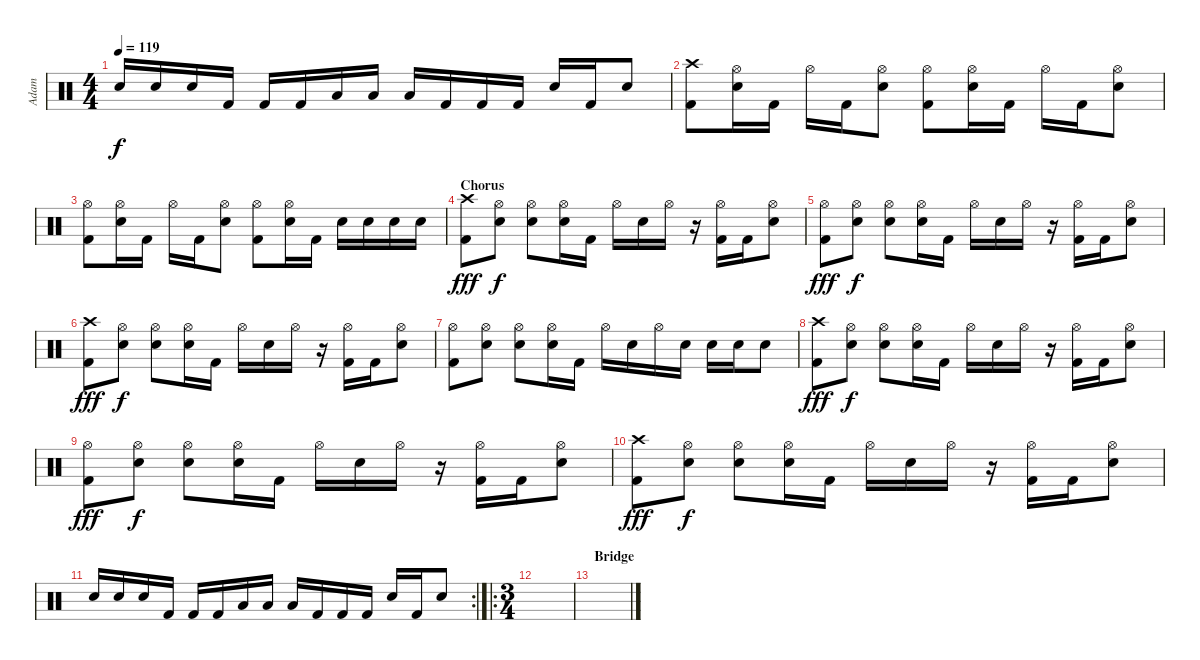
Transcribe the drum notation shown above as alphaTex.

\track ("Adam" "Adam") {instrument percussion}
\staff {score}
\articulation defaults
\ts (4 4)
\tempo 119
\clef neutral
\ks c "Electric Snare (hit)".16{dy f} "Electric Snare (hit)".16 "Electric Snare (hit)".16 "Kick (hit) 2".16 "Kick (hit) 2".16 "Kick (hit) 2".16 "Low Tom (hit)".16 "Low Tom (hit)".16 "Low Tom (hit)".16 "Kick (hit) 2".16 "Kick (hit) 2".16 "Kick (hit) 2".16 "Electric Snare (hit)".16 "Kick (hit) 2".16 "Electric Snare (hit)".8
|
("Crash high (hit)" "Kick (hit) 2").8 ("Hi-Hat (open)" "Electric Snare (hit)").16 "Kick (hit) 2".16 "Hi-Hat (open)".16 "Kick (hit) 2".16 ("Hi-Hat (open)" "Electric Snare (hit)").8 ("Hi-Hat (open)" "Kick (hit) 2").8 ("Hi-Hat (open)" "Electric Snare (hit)").16 "Kick (hit) 2".16 "Hi-Hat (open)".16 "Kick (hit) 2".16 ("Hi-Hat (open)" "Electric Snare (hit)").8 |
("Hi-Hat (open)" "Kick (hit) 2").8 ("Hi-Hat (open)" "Electric Snare (hit)").16 "Kick (hit) 2".16 "Hi-Hat (open)".16 "Kick (hit) 2".16 ("Hi-Hat (open)" "Electric Snare (hit)").8 ("Hi-Hat (open)" "Kick (hit) 2").8 ("Hi-Hat (open)" "Electric Snare (hit)").16 "Kick (hit) 2".16 "Electric Snare (hit)".16 "Electric Snare (hit)".16 "Electric Snare (hit)".16 "Electric Snare (hit)".16 |
\section ("" "Chorus")
("Crash high (hit)" "Kick (hit) 2").8{dy fff} ("Hi-Hat (open)" "Electric Snare (hit)").8{dy f} ("Hi-Hat (open)" "Electric Snare (hit)").8 ("Hi-Hat (open)" "Electric Snare (hit)").16 "Kick (hit) 2".16 "Hi-Hat (open)".16 "Electric Snare (hit)".16 "Hi-Hat (open)".16 r.16 ("Hi-Hat (open)" "Kick (hit) 2").16 "Kick (hit) 2".16 ("Hi-Hat (open)" "Electric Snare (hit)").8 |
("Hi-Hat (open)" "Kick (hit) 2").8{dy fff} ("Hi-Hat (open)" "Electric Snare (hit)").8{dy f} ("Hi-Hat (open)" "Electric Snare (hit)").8 ("Hi-Hat (open)" "Electric Snare (hit)").16 "Kick (hit) 2".16 "Hi-Hat (open)".16 "Electric Snare (hit)".16 "Hi-Hat (open)".16 r.16 ("Hi-Hat (open)" "Kick (hit) 2").16 "Kick (hit) 2".16 ("Hi-Hat (open)" "Electric Snare (hit)").8 |
("Crash high (hit)" "Kick (hit) 2").8{dy fff} ("Hi-Hat (open)" "Electric Snare (hit)").8{dy f} ("Hi-Hat (open)" "Electric Snare (hit)").8 ("Hi-Hat (open)" "Electric Snare (hit)").16 "Kick (hit) 2".16 "Hi-Hat (open)".16 "Electric Snare (hit)".16 "Hi-Hat (open)".16 r.16 ("Hi-Hat (open)" "Kick (hit) 2").16 "Kick (hit) 2".16 ("Hi-Hat (open)" "Electric Snare (hit)").8 |
("Hi-Hat (open)" "Kick (hit) 2").8 ("Hi-Hat (open)" "Electric Snare (hit)").8 ("Hi-Hat (open)" "Electric Snare (hit)").8 ("Hi-Hat (open)" "Electric Snare (hit)").16 "Kick (hit) 2".16 "Hi-Hat (open)".16 "Electric Snare (hit)".16 "Hi-Hat (open)".16 "Electric Snare (hit)".16 "Electric Snare (hit)".16 "Electric Snare (hit)".16 "Electric Snare (hit)".8 |
("Crash high (hit)" "Kick (hit) 2").8{dy fff} ("Hi-Hat (open)" "Electric Snare (hit)").8{dy f} ("Hi-Hat (open)" "Electric Snare (hit)").8 ("Hi-Hat (open)" "Electric Snare (hit)").16 "Kick (hit) 2".16 "Hi-Hat (open)".16 "Electric Snare (hit)".16 "Hi-Hat (open)".16 r.16 ("Hi-Hat (open)" "Kick (hit) 2").16 "Kick (hit) 2".16 ("Hi-Hat (open)" "Electric Snare (hit)").8 |
("Hi-Hat (open)" "Kick (hit) 2").8{dy fff} ("Hi-Hat (open)" "Electric Snare (hit)").8{dy f} ("Hi-Hat (open)" "Electric Snare (hit)").8 ("Hi-Hat (open)" "Electric Snare (hit)").16 "Kick (hit) 2".16 "Hi-Hat (open)".16 "Electric Snare (hit)".16 "Hi-Hat (open)".16 r.16 ("Hi-Hat (open)" "Kick (hit) 2").16 "Kick (hit) 2".16 ("Hi-Hat (open)" "Electric Snare (hit)").8 |
("Crash high (hit)" "Kick (hit) 2").8{dy fff} ("Hi-Hat (open)" "Electric Snare (hit)").8{dy f} ("Hi-Hat (open)" "Electric Snare (hit)").8 ("Hi-Hat (open)" "Electric Snare (hit)").16 "Kick (hit) 2".16 "Hi-Hat (open)".16 "Electric Snare (hit)".16 "Hi-Hat (open)".16 r.16 ("Hi-Hat (open)" "Kick (hit) 2").16 "Kick (hit) 2".16 ("Hi-Hat (open)" "Electric Snare (hit)").8 |
\rc 2 "Electric Snare (hit)".16 "Electric Snare (hit)".16 "Electric Snare (hit)".16 "Kick (hit) 2".16 "Kick (hit) 2".16 "Kick (hit) 2".16 "Low Tom (hit)".16 "Low Tom (hit)".16 "Low Tom (hit)".16 "Kick (hit) 2".16 "Kick (hit) 2".16 "Kick (hit) 2".16 "Electric Snare (hit)".16 "Kick (hit) 2".16 "Electric Snare (hit)".8
|
\ro
\ts (3 4)
|
\section ("" "Bridge")
